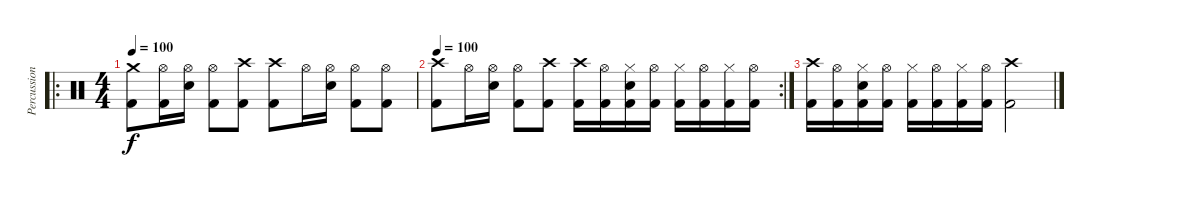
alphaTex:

\track ("Percussion" "Percussion") {instrument percussion}
\staff {score}
\articulation defaults
\ro
\ts (4 4)
\tempo 100
\clef neutral
\ks c
("Crash medium (hit)" "Kick (hit) 2").8{dy f} ("Hi-Hat (open)" "Kick (hit) 2").16 ("Hi-Hat (open)" "Snare (hit) 2").16 ("Hi-Hat (open)" "Kick (hit) 2").8 ("Crash high (hit)" "Kick (hit) 2").8 ("Crash high (hit)" "Kick (hit) 2").8 "Hi-Hat (open)".16 ("Hi-Hat (open)" "Snare (hit) 2").16 ("Hi-Hat (open)" "Kick (hit) 2").8 ("Hi-Hat (open)" "Kick (hit) 2").8 |
\rc 2
\tempo 100
("Crash high (hit)" "Kick (hit) 2").8 "Hi-Hat (open)".16 ("Hi-Hat (open)" "Snare (hit) 2").16 ("Hi-Hat (open)" "Kick (hit) 2").8 ("Crash high (hit)" "Kick (hit) 2").8 ("Crash high (hit)" "Kick (hit) 2").16 ("Hi-Hat (open)" "Kick (hit) 2").16 ("Hi-Hat (closed)" "Snare (hit) 2" "Kick (hit) 2").16 ("Hi-Hat (open)" "Kick (hit) 2").16 ("Hi-Hat (closed)" "Kick (hit) 2").16 ("Hi-Hat (open)" "Kick (hit) 2").16 ("Hi-Hat (closed)" "Kick (hit) 2").16 ("Hi-Hat (open)" "Kick (hit) 2").16 |
("Crash high (hit)" "Kick (hit) 2").16 ("Hi-Hat (open)" "Kick (hit) 2").16 ("Hi-Hat (closed)" "Snare (hit) 2" "Kick (hit) 2").16 ("Hi-Hat (open)" "Kick (hit) 2").16 ("Hi-Hat (closed)" "Kick (hit) 2").16 ("Hi-Hat (open)" "Kick (hit) 2").16 ("Hi-Hat (closed)" "Kick (hit) 2").16 ("Hi-Hat (open)" "Kick (hit) 2").16 ("Crash high (hit)" "Kick (hit) 2").2
